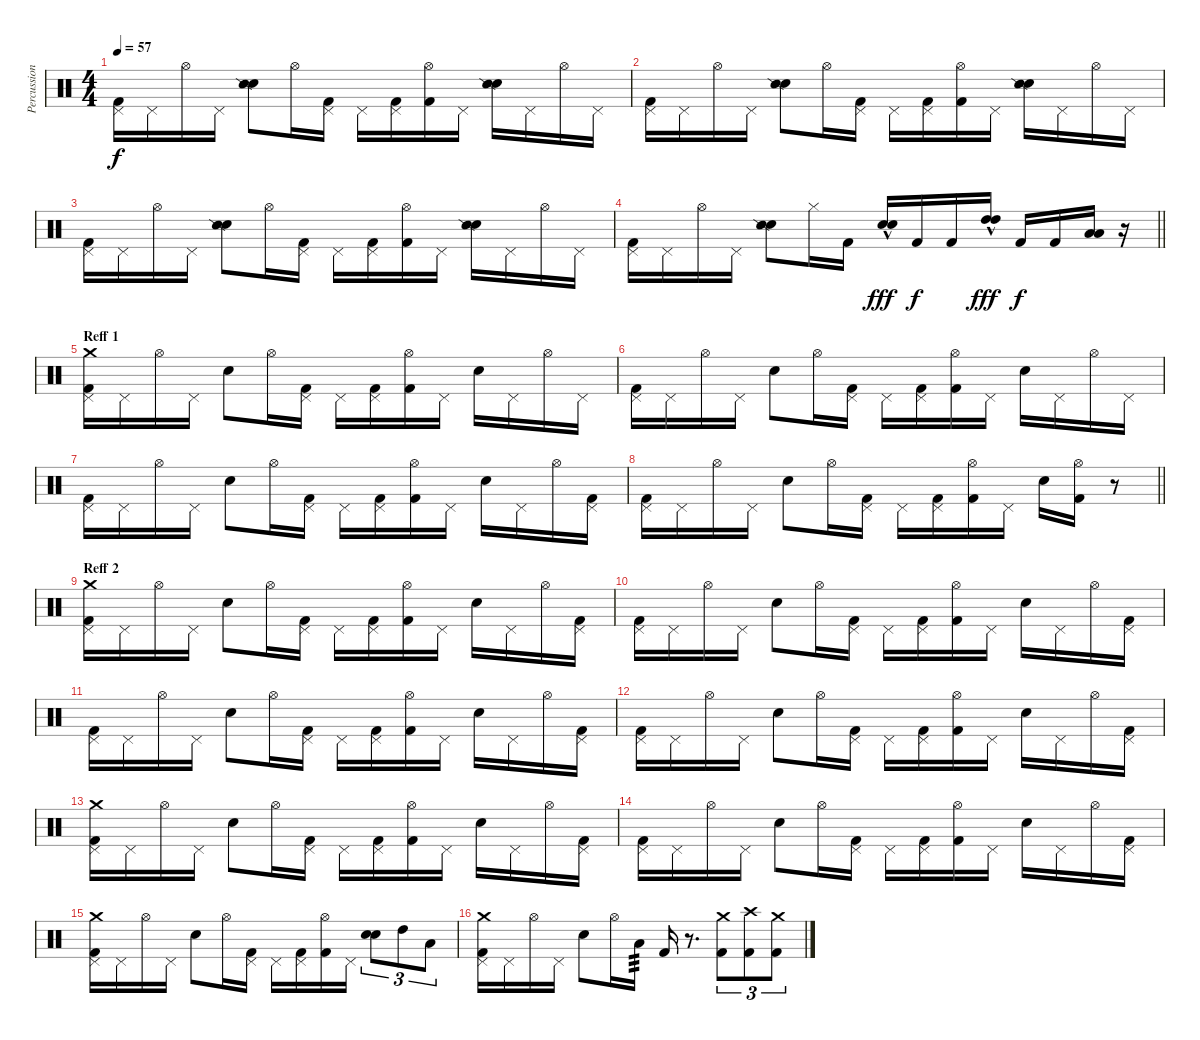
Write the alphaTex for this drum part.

\track ("Percussion" "Percussion") {instrument percussion}
\staff {score}
\articulation defaults
\ts (4 4)
\tempo 57
\clef neutral
\ks c
("Pedal Hi-Hat (hit)" "Kick (hit) 2").16{dy f} "Pedal Hi-Hat (hit)".16 "Hi-Hat (open)".16 "Pedal Hi-Hat (hit)".16 ("Electric Snare (hit)" "Snare (side stick) 2").8 "Hi-Hat (open)".16 ("Pedal Hi-Hat (hit)" "Kick (hit) 2").16 "Pedal Hi-Hat (hit)".16 ("Pedal Hi-Hat (hit)" "Kick (hit) 2").16 ("Hi-Hat (open)" "Kick (hit) 2").16 "Pedal Hi-Hat (hit)".16 ("Electric Snare (hit)" "Snare (side stick) 2").16 "Pedal Hi-Hat (hit)".16 "Hi-Hat (open)".16 "Pedal Hi-Hat (hit)".16 |
("Pedal Hi-Hat (hit)" "Kick (hit) 2").16 "Pedal Hi-Hat (hit)".16 "Hi-Hat (open)".16 "Pedal Hi-Hat (hit)".16 ("Electric Snare (hit)" "Snare (side stick) 2").8 "Hi-Hat (open)".16 ("Pedal Hi-Hat (hit)" "Kick (hit) 2").16 "Pedal Hi-Hat (hit)".16 ("Pedal Hi-Hat (hit)" "Kick (hit) 2").16 ("Hi-Hat (open)" "Kick (hit) 2").16 "Pedal Hi-Hat (hit)".16 ("Electric Snare (hit)" "Snare (side stick) 2").16 "Pedal Hi-Hat (hit)".16 "Hi-Hat (open)".16 "Pedal Hi-Hat (hit)".16 |
("Pedal Hi-Hat (hit)" "Kick (hit) 2").16 "Pedal Hi-Hat (hit)".16 "Hi-Hat (open)".16 "Pedal Hi-Hat (hit)".16 ("Electric Snare (hit)" "Snare (side stick) 2").8 "Hi-Hat (open)".16 ("Pedal Hi-Hat (hit)" "Kick (hit) 2").16 "Pedal Hi-Hat (hit)".16 ("Pedal Hi-Hat (hit)" "Kick (hit) 2").16 ("Hi-Hat (open)" "Kick (hit) 2").16 "Pedal Hi-Hat (hit)".16 ("Electric Snare (hit)" "Snare (side stick) 2").16 "Pedal Hi-Hat (hit)".16 "Hi-Hat (open)".16 "Pedal Hi-Hat (hit)".16 |
\barLineRight lightlight
("Pedal Hi-Hat (hit)" "Kick (hit) 2").16 "Pedal Hi-Hat (hit)".16 "Hi-Hat (open)".16 "Pedal Hi-Hat (hit)".16 ("Electric Snare (hit)" "Snare (side stick) 2").8 "Hi-Hat (closed)".16 "Kick (hit) 2".16 ("Electric Snare (hit)"{hac} "Electric Snare (hit)"{hac}).16{bd 60 dy fff} "Kick (hit) 2".16{dy f} "Kick (hit) 2".16 ("High Tom (hit)"{hac} "High Tom (hit)"{hac}).16{bd 60 dy fff} "Kick (hit) 2".16{dy f} "Kick (hit) 2".16 ("Low Tom (hit)" "Low Tom (hit)").16{bd 60} r.16 |
\section ("" "Reff 1")
("Pedal Hi-Hat (hit)" "Crash medium (hit)" "Kick (hit) 2").16 "Pedal Hi-Hat (hit)".16 "Hi-Hat (open)".16 "Pedal Hi-Hat (hit)".16 "Electric Snare (hit)".8 "Hi-Hat (open)".16 ("Pedal Hi-Hat (hit)" "Kick (hit) 2").16 "Pedal Hi-Hat (hit)".16 ("Pedal Hi-Hat (hit)" "Kick (hit) 2").16 ("Hi-Hat (open)" "Kick (hit) 2").16 "Pedal Hi-Hat (hit)".16 "Electric Snare (hit)".16 "Pedal Hi-Hat (hit)".16 "Hi-Hat (open)".16 "Pedal Hi-Hat (hit)".16 |
("Pedal Hi-Hat (hit)" "Kick (hit) 2").16 "Pedal Hi-Hat (hit)".16 "Hi-Hat (open)".16 "Pedal Hi-Hat (hit)".16 "Electric Snare (hit)".8 "Hi-Hat (open)".16 ("Pedal Hi-Hat (hit)" "Kick (hit) 2").16 "Pedal Hi-Hat (hit)".16 ("Pedal Hi-Hat (hit)" "Kick (hit) 2").16 ("Hi-Hat (open)" "Kick (hit) 2").16 "Pedal Hi-Hat (hit)".16 "Electric Snare (hit)".16 "Pedal Hi-Hat (hit)".16 "Hi-Hat (open)".16 "Pedal Hi-Hat (hit)".16 |
("Pedal Hi-Hat (hit)" "Kick (hit) 2").16 "Pedal Hi-Hat (hit)".16 "Hi-Hat (open)".16 "Pedal Hi-Hat (hit)".16 "Electric Snare (hit)".8 "Hi-Hat (open)".16 ("Pedal Hi-Hat (hit)" "Kick (hit) 2").16 "Pedal Hi-Hat (hit)".16 ("Pedal Hi-Hat (hit)" "Kick (hit) 2").16 ("Hi-Hat (open)" "Kick (hit) 2").16 "Pedal Hi-Hat (hit)".16 "Electric Snare (hit)".16 "Pedal Hi-Hat (hit)".16 "Hi-Hat (open)".16 ("Pedal Hi-Hat (hit)" "Kick (hit) 2").16 |
\barLineRight lightlight
("Pedal Hi-Hat (hit)" "Kick (hit) 2").16 "Pedal Hi-Hat (hit)".16 "Hi-Hat (open)".16 "Pedal Hi-Hat (hit)".16 "Electric Snare (hit)".8 "Hi-Hat (open)".16 ("Pedal Hi-Hat (hit)" "Kick (hit) 2").16 "Pedal Hi-Hat (hit)".16 ("Pedal Hi-Hat (hit)" "Kick (hit) 2").16 ("Hi-Hat (open)" "Kick (hit) 2").16 "Pedal Hi-Hat (hit)".16 "Electric Snare (hit)".16 ("Hi-Hat (open)" "Kick (hit) 2").16 r.8 |
\section ("" "Reff 2")
("Pedal Hi-Hat (hit)" "Crash medium (hit)" "Kick (hit) 2").16 "Pedal Hi-Hat (hit)".16 "Hi-Hat (open)".16 "Pedal Hi-Hat (hit)".16 "Electric Snare (hit)".8 "Hi-Hat (open)".16 ("Pedal Hi-Hat (hit)" "Kick (hit) 2").16 "Pedal Hi-Hat (hit)".16 ("Pedal Hi-Hat (hit)" "Kick (hit) 2").16 ("Hi-Hat (open)" "Kick (hit) 2").16 "Pedal Hi-Hat (hit)".16 "Electric Snare (hit)".16 "Pedal Hi-Hat (hit)".16 "Hi-Hat (open)".16 ("Pedal Hi-Hat (hit)" "Kick (hit) 2").16 |
("Pedal Hi-Hat (hit)" "Kick (hit) 2").16 "Pedal Hi-Hat (hit)".16 "Hi-Hat (open)".16 "Pedal Hi-Hat (hit)".16 "Electric Snare (hit)".8 "Hi-Hat (open)".16 ("Pedal Hi-Hat (hit)" "Kick (hit) 2").16 "Pedal Hi-Hat (hit)".16 ("Pedal Hi-Hat (hit)" "Kick (hit) 2").16 ("Hi-Hat (open)" "Kick (hit) 2").16 "Pedal Hi-Hat (hit)".16 "Electric Snare (hit)".16 "Pedal Hi-Hat (hit)".16 "Hi-Hat (open)".16 ("Pedal Hi-Hat (hit)" "Kick (hit) 2").16 |
("Pedal Hi-Hat (hit)" "Kick (hit) 2").16 "Pedal Hi-Hat (hit)".16 "Hi-Hat (open)".16 "Pedal Hi-Hat (hit)".16 "Electric Snare (hit)".8 "Hi-Hat (open)".16 ("Pedal Hi-Hat (hit)" "Kick (hit) 2").16 "Pedal Hi-Hat (hit)".16 ("Pedal Hi-Hat (hit)" "Kick (hit) 2").16 ("Hi-Hat (open)" "Kick (hit) 2").16 "Pedal Hi-Hat (hit)".16 "Electric Snare (hit)".16 "Pedal Hi-Hat (hit)".16 "Hi-Hat (open)".16 ("Pedal Hi-Hat (hit)" "Kick (hit) 2").16 |
("Pedal Hi-Hat (hit)" "Kick (hit) 2").16 "Pedal Hi-Hat (hit)".16 "Hi-Hat (open)".16 "Pedal Hi-Hat (hit)".16 "Electric Snare (hit)".8 "Hi-Hat (open)".16 ("Pedal Hi-Hat (hit)" "Kick (hit) 2").16 "Pedal Hi-Hat (hit)".16 ("Pedal Hi-Hat (hit)" "Kick (hit) 2").16 ("Hi-Hat (open)" "Kick (hit) 2").16 "Pedal Hi-Hat (hit)".16 "Electric Snare (hit)".16 "Pedal Hi-Hat (hit)".16 "Hi-Hat (open)".16 ("Pedal Hi-Hat (hit)" "Kick (hit) 2").16 |
("Pedal Hi-Hat (hit)" "Crash medium (hit)" "Kick (hit) 2").16 "Pedal Hi-Hat (hit)".16 "Hi-Hat (open)".16 "Pedal Hi-Hat (hit)".16 "Electric Snare (hit)".8 "Hi-Hat (open)".16 ("Pedal Hi-Hat (hit)" "Kick (hit) 2").16 "Pedal Hi-Hat (hit)".16 ("Pedal Hi-Hat (hit)" "Kick (hit) 2").16 ("Hi-Hat (open)" "Kick (hit) 2").16 "Pedal Hi-Hat (hit)".16 "Electric Snare (hit)".16 "Pedal Hi-Hat (hit)".16 "Hi-Hat (open)".16 ("Pedal Hi-Hat (hit)" "Kick (hit) 2").16 |
("Pedal Hi-Hat (hit)" "Kick (hit) 2").16 "Pedal Hi-Hat (hit)".16 "Hi-Hat (open)".16 "Pedal Hi-Hat (hit)".16 "Electric Snare (hit)".8 "Hi-Hat (open)".16 ("Pedal Hi-Hat (hit)" "Kick (hit) 2").16 "Pedal Hi-Hat (hit)".16 ("Pedal Hi-Hat (hit)" "Kick (hit) 2").16 ("Hi-Hat (open)" "Kick (hit) 2").16 "Pedal Hi-Hat (hit)".16 "Electric Snare (hit)".16 "Pedal Hi-Hat (hit)".16 "Hi-Hat (open)".16 ("Pedal Hi-Hat (hit)" "Kick (hit) 2").16 |
("Pedal Hi-Hat (hit)" "Crash medium (hit)" "Kick (hit) 2").16 "Pedal Hi-Hat (hit)".16 "Hi-Hat (open)".16 "Pedal Hi-Hat (hit)".16 "Electric Snare (hit)".8 "Hi-Hat (open)".16 ("Pedal Hi-Hat (hit)" "Kick (hit) 2").16 "Pedal Hi-Hat (hit)".16 ("Pedal Hi-Hat (hit)" "Kick (hit) 2").16 ("Hi-Hat (open)" "Kick (hit) 2").16 "Pedal Hi-Hat (hit)".16 ("Electric Snare (hit)" "Electric Snare (hit)").8{tu (3 2) bd 120} "High Tom (hit)".8{tu (3 2)} "Low Tom (hit)".8{tu (3 2)} |
("Pedal Hi-Hat (hit)" "Crash medium (hit)" "Kick (hit) 2").16 "Pedal Hi-Hat (hit)".16 "Hi-Hat (open)".16 "Pedal Hi-Hat (hit)".16 "Electric Snare (hit)".8 "Hi-Hat (open)".16 "Low Tom (hit)".16{tp 3} "Kick (hit) 2".16 r.8{d} ("Crash medium (hit)" "Kick (hit) 2").8{tu (3 2)} ("Crash high (hit)" "Kick (hit) 2").8{tu (3 2)} ("Crash medium (hit)" "Kick (hit) 2").8{tu (3 2)}
